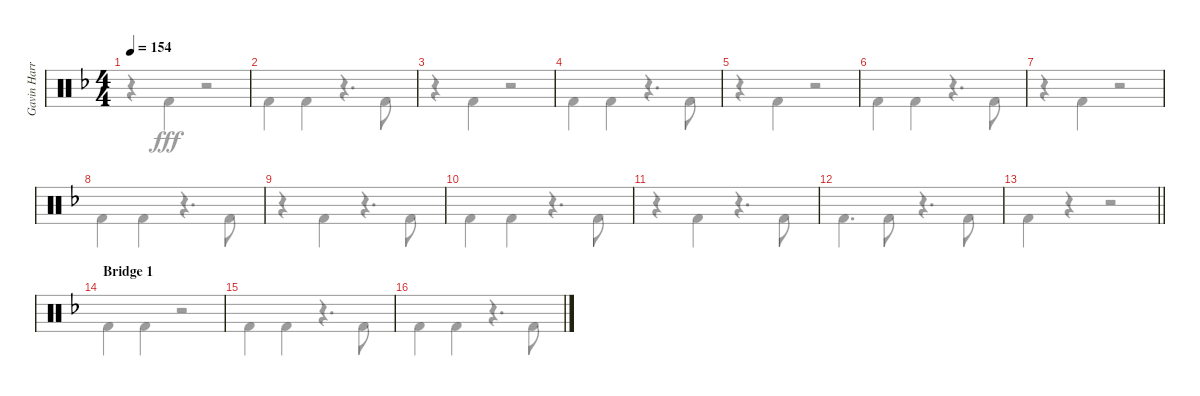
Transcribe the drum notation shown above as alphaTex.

\track ("Gavin Harrison Bass Pedal" "Gavin Harr") {instrument percussion}
\staff {score}
\articulation defaults
\voice
\ts (4 4)
\tempo 154
\clef neutral
\ks dminor
|
|
|
|
|
|
|
|
|
|
|
|
\barLineRight lightlight
|
\section ("" "Bridge 1")
|
|
\voice
\clef neutral
\ks dminor
r.4{dy fff} "Kick (hit) 2".4 r.2 |
"Kick (hit) 2".4 "Kick (hit) 2".4 r.4{d} "Kick (hit) 2".8 |
r.4 "Kick (hit) 2".4 r.2 |
"Kick (hit) 2".4 "Kick (hit) 2".4 r.4{d} "Kick (hit) 2".8 |
r.4 "Kick (hit) 2".4 r.2 |
"Kick (hit) 2".4 "Kick (hit) 2".4 r.4{d} "Kick (hit) 2".8 |
r.4 "Kick (hit) 2".4 r.2 |
"Kick (hit) 2".4 "Kick (hit) 2".4 r.4{d} "Kick (hit) 2".8 |
r.4 "Kick (hit) 2".4 r.4{d} "Kick (hit) 2".8 |
"Kick (hit) 2".4 "Kick (hit) 2".4 r.4{d} "Kick (hit) 2".8 |
r.4 "Kick (hit) 2".4 r.4{d} "Kick (hit) 2".8 |
"Kick (hit) 2".4{d} "Kick (hit) 2".8 r.4{d} "Kick (hit) 2".8 |
\barLineRight lightlight "Kick (hit) 2".4
r.4 r.2 |
"Kick (hit) 2".4 "Kick (hit) 2".4 r.2 |
"Kick (hit) 2".4 "Kick (hit) 2".4 r.4{d} "Kick (hit) 2".8 |
"Kick (hit) 2".4 "Kick (hit) 2".4 r.4{d} "Kick (hit) 2".8
